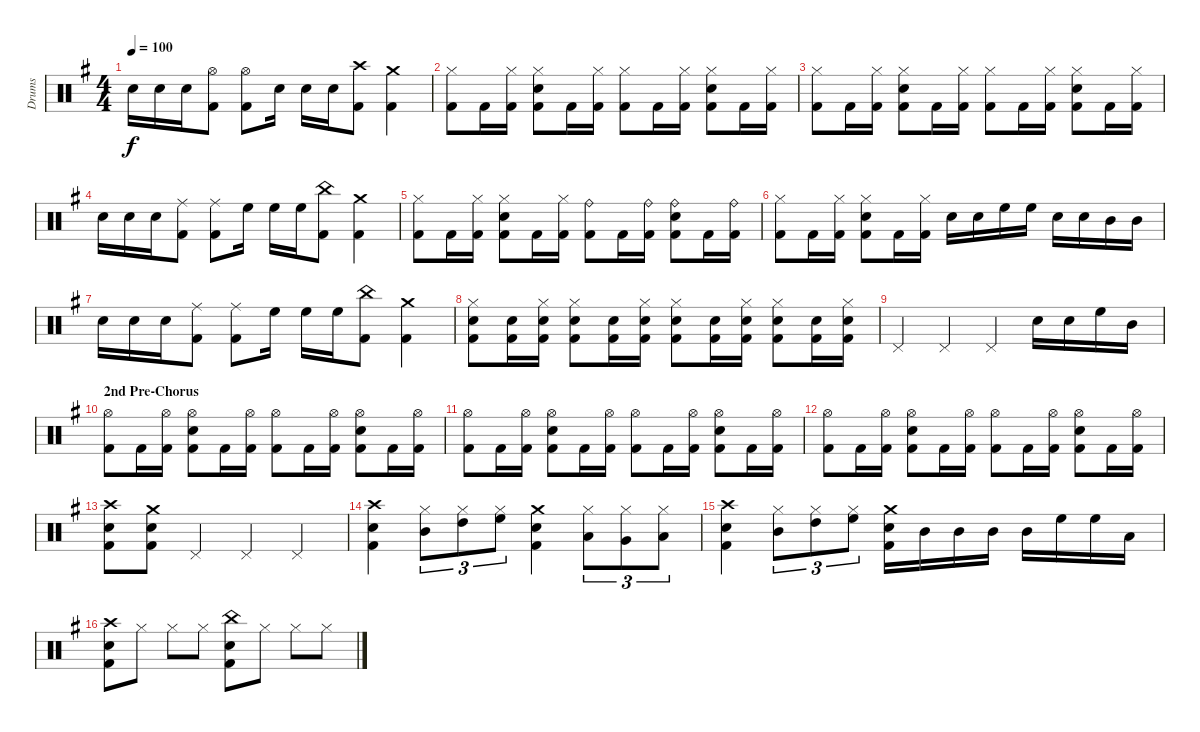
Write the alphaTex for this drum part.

\track ("Drums" "Drums") {instrument percussion}
\staff {score}
\articulation defaults
\ts (4 4)
\tempo 100
\clef neutral
\ks eminor "Snare (hit) 2".16{dy f} "Snare (hit) 2".16 "Snare (hit) 2".16
("Hi-Hat (open)" "Kick (hit) 2").8 ("Hi-Hat (open)" "Kick (hit) 2").8 "Snare (hit) 2".16 "Snare (hit) 2".16 "Snare (hit) 2".16 ("Crash high (hit)" "Kick (hit) 2").8 ("Crash medium (hit)" "Kick (hit) 2").4 |
("Hi-Hat (closed)" "Kick (hit) 2").8 "Kick (hit) 2".16 ("Hi-Hat (closed)" "Kick (hit) 2").16 ("Hi-Hat (closed)" "Kick (hit) 2" "Snare (hit) 2").8 "Kick (hit) 2".16 ("Hi-Hat (closed)" "Kick (hit) 2").16 ("Hi-Hat (closed)" "Kick (hit) 2").8 "Kick (hit) 2".16 ("Hi-Hat (closed)" "Kick (hit) 2").16 ("Hi-Hat (closed)" "Kick (hit) 2" "Snare (hit) 2").8 "Kick (hit) 2".16 ("Hi-Hat (closed)" "Kick (hit) 2").16 |
("Hi-Hat (closed)" "Kick (hit) 2").8 "Kick (hit) 2".16 ("Hi-Hat (closed)" "Kick (hit) 2").16 ("Hi-Hat (closed)" "Kick (hit) 2" "Snare (hit) 2").8 "Kick (hit) 2".16 ("Hi-Hat (closed)" "Kick (hit) 2").16 ("Hi-Hat (closed)" "Kick (hit) 2").8 "Kick (hit) 2".16 ("Hi-Hat (closed)" "Kick (hit) 2").16 ("Hi-Hat (closed)" "Kick (hit) 2" "Snare (hit) 2").8 "Kick (hit) 2".16 ("Hi-Hat (closed)" "Kick (hit) 2").16 |
"Snare (hit) 2".16 "Snare (hit) 2".16 "Snare (hit) 2".16 ("Ride (middle)" "Kick (hit) 2").8 ("Ride (middle)" "Kick (hit) 2").8 "High Floor Tom (hit)".16 "High Floor Tom (hit)".16 "High Floor Tom (hit)".16 ("China (hit)" "Kick (hit) 2").8 ("Crash medium (hit)" "Kick (hit) 2").4 |
("Hi-Hat (closed)" "Kick (hit) 2").8 "Kick (hit) 2".16 ("Hi-Hat (closed)" "Kick (hit) 2").16 ("Hi-Hat (closed)" "Kick (hit) 2" "Snare (hit) 2").8 "Kick (hit) 2".16 ("Hi-Hat (closed)" "Kick (hit) 2").16 ("Ride (bell)" "Kick (hit) 2").8 "Kick (hit) 2".16 ("Ride (bell)" "Kick (hit) 2").16 ("Ride (bell)" "Kick (hit) 2" "Snare (hit) 2").8 "Kick (hit) 2".16 ("Ride (bell)" "Kick (hit) 2").16 |
("Hi-Hat (closed)" "Kick (hit) 2").8 "Kick (hit) 2".16 ("Hi-Hat (closed)" "Kick (hit) 2").16 ("Hi-Hat (closed)" "Kick (hit) 2" "Snare (hit) 2").8 "Kick (hit) 2".16 ("Hi-Hat (closed)" "Kick (hit) 2").16 "Snare (hit) 2".16 "Snare (hit) 2".16 "High Floor Tom (hit)".16 "High Floor Tom (hit)".16 "Snare (hit) 2".16 "Snare (hit) 2".16 "Mid Tom (hit)".16 "Mid Tom (hit)".16 |
"Snare (hit) 2".16 "Snare (hit) 2".16 "Snare (hit) 2".16 ("Ride (middle)" "Kick (hit) 2").8 ("Ride (middle)" "Kick (hit) 2").8 "High Floor Tom (hit)".16 "High Floor Tom (hit)".16 "High Floor Tom (hit)".16 ("China (hit)" "Kick (hit) 2").8 ("Crash medium (hit)" "Kick (hit) 2").4 |
("Hi-Hat (closed)" "Kick (hit) 2" "Snare (hit) 2").8 ("Kick (hit) 2" "Snare (hit) 2").16 ("Hi-Hat (closed)" "Kick (hit) 2" "Snare (hit) 2").16 ("Hi-Hat (closed)" "Kick (hit) 2" "Snare (hit) 2").8 ("Kick (hit) 2" "Snare (hit) 2").16 ("Hi-Hat (closed)" "Kick (hit) 2" "Snare (hit) 2").16 ("Hi-Hat (closed)" "Kick (hit) 2" "Snare (hit) 2").8 ("Kick (hit) 2" "Snare (hit) 2").16 ("Hi-Hat (closed)" "Kick (hit) 2" "Snare (hit) 2").16 ("Hi-Hat (closed)" "Kick (hit) 2" "Snare (hit) 2").8 ("Kick (hit) 2" "Snare (hit) 2").16 ("Hi-Hat (closed)" "Kick (hit) 2" "Snare (hit) 2").16 |
"Pedal Hi-Hat (hit)".4 "Pedal Hi-Hat (hit)".4 "Pedal Hi-Hat (hit)".4 "Snare (hit) 2".16 "Snare (hit) 2".16 "High Floor Tom (hit)".16 "Mid Tom (hit)".16 |
\section ("" "2nd Pre-Chorus")
("Hi-Hat (open)" "Kick (hit) 2").8 "Kick (hit) 2".16 ("Hi-Hat (open)" "Kick (hit) 2").16 ("Hi-Hat (open)" "Kick (hit) 2" "Snare (hit) 2").8 "Kick (hit) 2".16 ("Hi-Hat (open)" "Kick (hit) 2").16 ("Hi-Hat (open)" "Kick (hit) 2").8 "Kick (hit) 2".16 ("Hi-Hat (open)" "Kick (hit) 2").16 ("Hi-Hat (open)" "Kick (hit) 2" "Snare (hit) 2").8 "Kick (hit) 2".16 ("Hi-Hat (open)" "Kick (hit) 2").16 |
("Hi-Hat (open)" "Kick (hit) 2").8 "Kick (hit) 2".16 ("Hi-Hat (open)" "Kick (hit) 2").16 ("Hi-Hat (open)" "Kick (hit) 2" "Snare (hit) 2").8 "Kick (hit) 2".16 ("Hi-Hat (open)" "Kick (hit) 2").16 ("Hi-Hat (open)" "Kick (hit) 2").8 "Kick (hit) 2".16 ("Hi-Hat (open)" "Kick (hit) 2").16 ("Hi-Hat (open)" "Kick (hit) 2" "Snare (hit) 2").8 "Kick (hit) 2".16 ("Hi-Hat (open)" "Kick (hit) 2").16 |
("Hi-Hat (open)" "Kick (hit) 2").8 "Kick (hit) 2".16 ("Hi-Hat (open)" "Kick (hit) 2").16 ("Hi-Hat (open)" "Kick (hit) 2" "Snare (hit) 2").8 "Kick (hit) 2".16 ("Hi-Hat (open)" "Kick (hit) 2").16 ("Hi-Hat (open)" "Kick (hit) 2").8 "Kick (hit) 2".16 ("Hi-Hat (open)" "Kick (hit) 2").16 ("Hi-Hat (open)" "Kick (hit) 2" "Snare (hit) 2").8 "Kick (hit) 2".16 ("Hi-Hat (open)" "Kick (hit) 2").16 |
("Crash high (hit)" "Snare (hit) 2" "Kick (hit) 2").8 ("Crash medium (hit)" "Snare (hit) 2" "Kick (hit) 2").8 "Pedal Hi-Hat (hit)".4 "Pedal Hi-Hat (hit)".4 "Pedal Hi-Hat (hit)".4 |
("Crash high (hit)" "Snare (hit) 2" "Kick (hit) 2").4 ("Hi-Hat (closed)" "Mid Tom (hit)").8{tu (3 2)} ("Hi-Hat (closed)" "High Tom (hit)").8{tu (3 2)} ("Hi-Hat (closed)" "High Floor Tom (hit)").8{tu (3 2)} ("Crash medium (hit)" "Snare (hit) 2" "Kick (hit) 2").4 ("Hi-Hat (closed)" "Low Floor Tom (hit)").8{tu (3 2)} ("Hi-Hat (closed)" "Very Low Tom (hit)").8{tu (3 2)} ("Hi-Hat (closed)" "Low Tom (hit)").8{tu (3 2)} |
("Crash high (hit)" "Snare (hit) 2" "Kick (hit) 2").4 ("Hi-Hat (closed)" "Mid Tom (hit)").8{tu (3 2)} ("Hi-Hat (closed)" "High Tom (hit)").8{tu (3 2)} ("Hi-Hat (closed)" "High Floor Tom (hit)").8{tu (3 2)} ("Crash medium (hit)" "Snare (hit) 2" "Kick (hit) 2").16 "Mid Tom (hit)".16 "Mid Tom (hit)".16 "Mid Tom (hit)".16 "Mid Tom (hit)".16 "High Floor Tom (hit)".16 "High Floor Tom (hit)".16 "Low Tom (hit)".16 |
("Crash high (hit)" "Snare (hit) 2" "Kick (hit) 2").8 "Hi-Hat (closed)".8 "Hi-Hat (closed)".8 "Hi-Hat (closed)".8 ("China (hit)" "Snare (hit) 2" "Kick (hit) 2").8 "Hi-Hat (closed)".8 "Hi-Hat (closed)".8 "Hi-Hat (closed)".8
